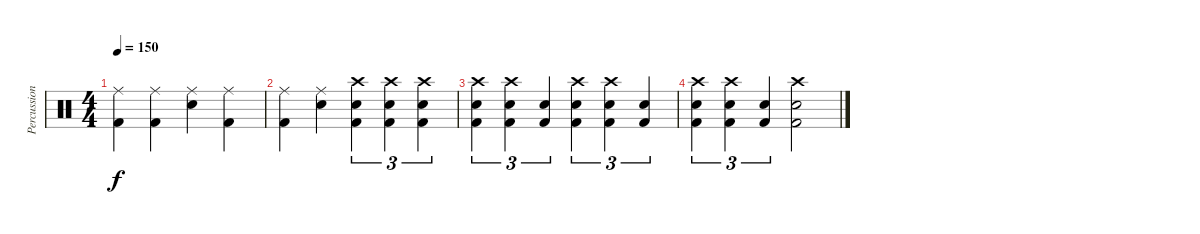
\track ("Percussions" "Percussion") {instrument percussion}
\staff {score}
\articulation defaults
\ts (4 4)
\tempo 150
\clef neutral
\ks c
("Ride (middle)" "Kick (hit) 2").4{dy f} ("Ride (middle)" "Kick (hit) 2").4 ("Ride (middle)" "Electric Snare (hit)").4 ("Ride (middle)" "Kick (hit) 2").4 |
("Ride (middle)" "Kick (hit) 2").4 ("Ride (middle)" "Electric Snare (hit)").4 ("Crash high (hit)" "Electric Snare (hit)" "Kick (hit) 2").4{tu (3 2)} ("Crash high (hit)" "Electric Snare (hit)" "Kick (hit) 2").4{tu (3 2)} ("Crash high (hit)" "Electric Snare (hit)" "Kick (hit) 2").4{tu (3 2)} |
("Crash high (hit)" "Electric Snare (hit)" "Kick (hit) 2").4{tu (3 2)} ("Crash high (hit)" "Electric Snare (hit)" "Kick (hit) 2").4{tu (3 2)} ("Electric Snare (hit)" "Kick (hit) 2").4{tu (3 2)} ("Crash high (hit)" "Electric Snare (hit)" "Kick (hit) 2").4{tu (3 2)} ("Crash high (hit)" "Electric Snare (hit)" "Kick (hit) 2").4{tu (3 2)} ("Electric Snare (hit)" "Kick (hit) 2").4{tu (3 2)} |
("Crash high (hit)" "Electric Snare (hit)" "Kick (hit) 2").4{tu (3 2)} ("Crash high (hit)" "Electric Snare (hit)" "Kick (hit) 2").4{tu (3 2)} ("Electric Snare (hit)" "Kick (hit) 2").4{tu (3 2)} ("Crash high (hit)" "Electric Snare (hit)" "Kick (hit) 2").2
